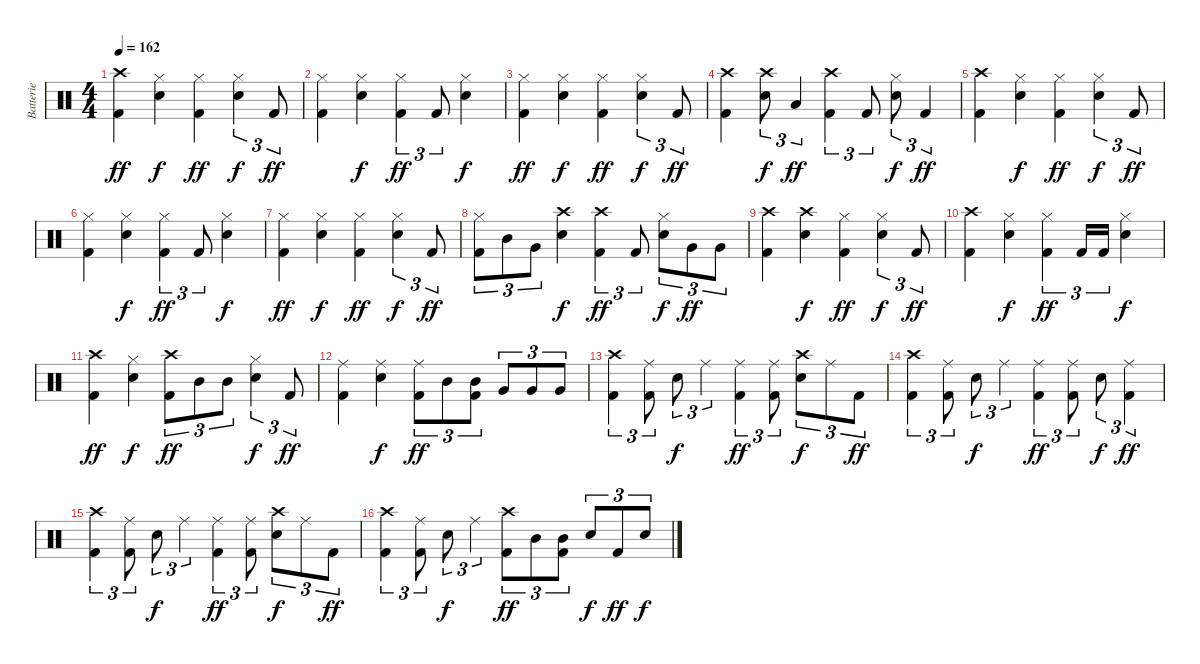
\track ("Batterie" "Batterie") {instrument percussion}
\staff {score}
\articulation defaults
\ts (4 4)
\tempo 162
\clef neutral
\ks c
("Crash high (hit)" "Kick (hit) 2").4{dy ff} ("Hi-Hat (closed)" "Snare (hit) 2").4{dy f} ("Hi-Hat (closed)" "Kick (hit) 2").4{dy ff} ("Hi-Hat (closed)" "Snare (hit) 2").4{tu (3 2) dy f} "Kick (hit) 2".8{tu (3 2) dy ff} |
("Hi-Hat (closed)" "Kick (hit) 2").4 ("Hi-Hat (closed)" "Snare (hit) 2").4{dy f} ("Hi-Hat (closed)" "Kick (hit) 2").4{tu (3 2) dy ff} "Kick (hit) 2".8{tu (3 2)} ("Hi-Hat (closed)" "Snare (hit) 2").4{dy f} |
("Hi-Hat (closed)" "Kick (hit) 2").4{dy ff} ("Hi-Hat (closed)" "Snare (hit) 2").4{dy f} ("Hi-Hat (closed)" "Kick (hit) 2").4{dy ff} ("Hi-Hat (closed)" "Snare (hit) 2").4{tu (3 2) dy f} "Kick (hit) 2".8{tu (3 2) dy ff} |
("Crash high (hit)" "Kick (hit) 2").4 ("Crash high (hit)" "Snare (hit) 2").8{tu (3 2) dy f} "Low Tom (hit)".4{tu (3 2) dy ff} ("Crash high (hit)" "Kick (hit) 2").4{tu (3 2)} "Kick (hit) 2".8{tu (3 2)} ("Hi-Hat (closed)" "Snare (hit) 2").8{tu (3 2) dy f} "Kick (hit) 2".4{tu (3 2) dy ff} |
("Crash high (hit)" "Kick (hit) 2").4 ("Hi-Hat (closed)" "Snare (hit) 2").4{dy f} ("Hi-Hat (closed)" "Kick (hit) 2").4{dy ff} ("Hi-Hat (closed)" "Snare (hit) 2").4{tu (3 2) dy f} "Kick (hit) 2".8{tu (3 2) dy ff} |
("Hi-Hat (closed)" "Kick (hit) 2").4 ("Hi-Hat (closed)" "Snare (hit) 2").4{dy f} ("Hi-Hat (closed)" "Kick (hit) 2").4{tu (3 2) dy ff} "Kick (hit) 2".8{tu (3 2)} ("Hi-Hat (closed)" "Snare (hit) 2").4{dy f} |
("Hi-Hat (closed)" "Kick (hit) 2").4{dy ff} ("Hi-Hat (closed)" "Snare (hit) 2").4{dy f} ("Hi-Hat (closed)" "Kick (hit) 2").4{dy ff} ("Hi-Hat (closed)" "Snare (hit) 2").4{tu (3 2) dy f} "Kick (hit) 2".8{tu (3 2) dy ff} |
("Hi-Hat (closed)" "Kick (hit) 2").8{tu (3 2)} "Mid Tom (hit)".8{tu (3 2)} "Very Low Tom (hit)".8{tu (3 2)} ("Crash high (hit)" "Snare (hit) 2").4{dy f} ("Crash high (hit)" "Kick (hit) 2").4{tu (3 2) dy ff} "Kick (hit) 2".8{tu (3 2)} ("Hi-Hat (closed)" "Snare (hit) 2").8{tu (3 2) dy f} "Very Low Tom (hit)".8{tu (3 2) dy ff} "Very Low Tom (hit)".8{tu (3 2)} |
("Crash high (hit)" "Kick (hit) 2").4 ("Crash high (hit)" "Snare (hit) 2").4{dy f} ("Hi-Hat (closed)" "Kick (hit) 2").4{dy ff} ("Hi-Hat (closed)" "Snare (hit) 2").4{tu (3 2) dy f} "Kick (hit) 2".8{tu (3 2) dy ff} |
("Crash high (hit)" "Kick (hit) 2").4 ("Hi-Hat (closed)" "Snare (hit) 2").4{dy f} ("Hi-Hat (closed)" "Kick (hit) 2").4{tu (3 2) dy ff} "Kick (hit) 2".16{tu (3 2)} "Kick (hit) 2".16{tu (3 2)} ("Hi-Hat (closed)" "Snare (hit) 2").4{dy f} |
("Crash high (hit)" "Kick (hit) 2").4{dy ff} ("Hi-Hat (closed)" "Snare (hit) 2").4{dy f} ("Crash high (hit)" "Kick (hit) 2").8{tu (3 2) dy ff} "Mid Tom (hit)".8{tu (3 2)} "Mid Tom (hit)".8{tu (3 2)} ("Hi-Hat (closed)" "Snare (hit) 2").4{tu (3 2) dy f} "Kick (hit) 2".8{tu (3 2) dy ff} |
("Ride (middle)" "Kick (hit) 2").4 ("Ride (middle)" "Snare (hit) 2").4{dy f} ("Ride (middle)" "Kick (hit) 2").8{tu (3 2) dy ff} "Mid Tom (hit)".8{tu (3 2)} ("Mid Tom (hit)" "Kick (hit) 2").8{tu (3 2)} "Very Low Tom (hit)".8{tu (3 2)} "Very Low Tom (hit)".8{tu (3 2)} "Very Low Tom (hit)".8{tu (3 2)} |
("Crash high (hit)" "Kick (hit) 2").4{tu (3 2)} ("Ride (middle)" "Kick (hit) 2").8{tu (3 2)} "Snare (hit) 2".8{tu (3 2) dy f} "Ride (middle)".4{tu (3 2)} ("Ride (middle)" "Kick (hit) 2").4{tu (3 2) dy ff} ("Ride (middle)" "Kick (hit) 2").8{tu (3 2)} ("Crash high (hit)" "Snare (hit) 2").8{tu (3 2) dy f} "Ride (middle)".8{tu (3 2)} "Kick (hit) 2".8{tu (3 2) dy ff} |
("Crash high (hit)" "Kick (hit) 2").4{tu (3 2)} ("Ride (middle)" "Kick (hit) 2").8{tu (3 2)} "Snare (hit) 2".8{tu (3 2) dy f} "Ride (middle)".4{tu (3 2)} ("Ride (middle)" "Kick (hit) 2").4{tu (3 2) dy ff} ("Ride (middle)" "Kick (hit) 2").8{tu (3 2)} "Snare (hit) 2".8{tu (3 2) dy f} ("Ride (middle)" "Kick (hit) 2").4{tu (3 2) dy ff} |
("Crash high (hit)" "Kick (hit) 2").4{tu (3 2)} ("Ride (middle)" "Kick (hit) 2").8{tu (3 2)} "Snare (hit) 2".8{tu (3 2) dy f} "Ride (middle)".4{tu (3 2)} ("Ride (middle)" "Kick (hit) 2").4{tu (3 2) dy ff} ("Ride (middle)" "Kick (hit) 2").8{tu (3 2)} ("Crash high (hit)" "Snare (hit) 2").8{tu (3 2) dy f} "Ride (middle)".8{tu (3 2)} "Kick (hit) 2".8{tu (3 2) dy ff} |
("Crash high (hit)" "Kick (hit) 2").4{tu (3 2)} ("Ride (middle)" "Kick (hit) 2").8{tu (3 2)} "Snare (hit) 2".8{tu (3 2) dy f} "Ride (middle)".4{tu (3 2)} ("Crash high (hit)" "Kick (hit) 2").8{tu (3 2) dy ff} "Mid Tom (hit)".8{tu (3 2)} ("Mid Tom (hit)" "Kick (hit) 2").8{tu (3 2)} "Snare (hit) 2".8{tu (3 2) dy f} "Kick (hit) 2".8{tu (3 2) dy ff} "Snare (hit) 2".8{tu (3 2) dy f}
